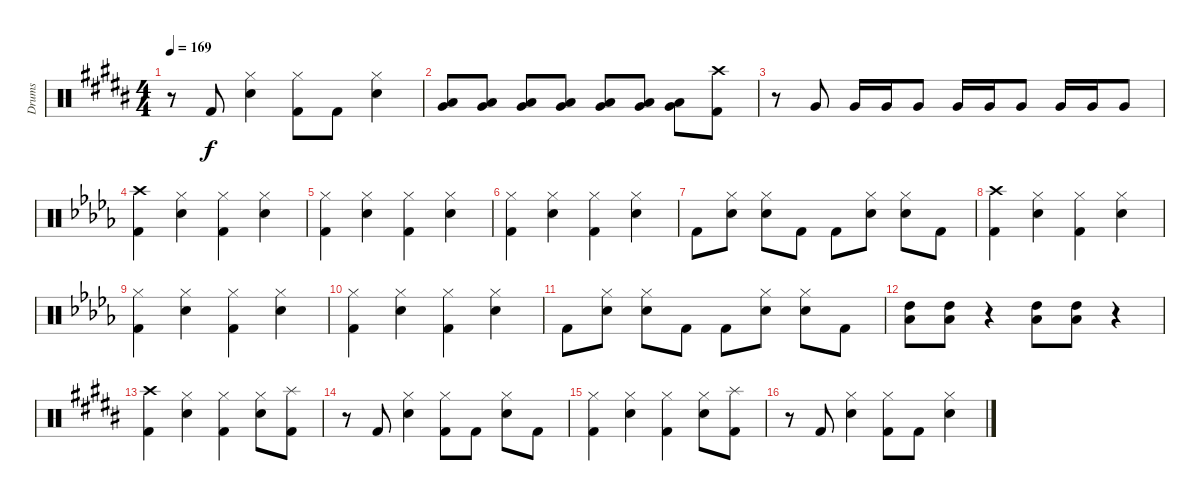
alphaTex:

\track ("Drums" "Drums") {instrument percussion}
\staff {score}
\articulation defaults
\ts (4 4)
\tempo 169
\clef neutral
\ks b
r.8{dy f} "Kick (hit) 2".8 ("Hi-Hat (closed)" "Snare (hit) 2").4 ("Hi-Hat (closed)" "Kick (hit) 2").8 "Kick (hit) 2".8 ("Hi-Hat (closed)" "Snare (hit) 2").4 |
("Low Tom (hit)" "Very Low Tom (hit)").8 ("Low Tom (hit)" "Very Low Tom (hit)").8 ("Low Tom (hit)" "Very Low Tom (hit)").8 ("Low Tom (hit)" "Very Low Tom (hit)").8 ("Low Tom (hit)" "Very Low Tom (hit)").8 ("Low Tom (hit)" "Very Low Tom (hit)").8 ("Low Tom (hit)" "Very Low Tom (hit)").8 ("Crash high (hit)" "Kick (hit) 2").8 |
r.8 "Very Low Tom (hit)".8 "Very Low Tom (hit)".16 "Very Low Tom (hit)".16 "Very Low Tom (hit)".8 "Very Low Tom (hit)".16 "Very Low Tom (hit)".16 "Very Low Tom (hit)".8 "Very Low Tom (hit)".16 "Very Low Tom (hit)".16 "Very Low Tom (hit)".8 |
\ks db
("Crash high (hit)" "Kick (hit) 2").4 ("Hi-Hat (closed)" "Snare (hit) 2").4 ("Hi-Hat (closed)" "Kick (hit) 2").4 ("Hi-Hat (closed)" "Snare (hit) 2").4 |
("Hi-Hat (closed)" "Kick (hit) 2").4 ("Hi-Hat (closed)" "Snare (hit) 2").4 ("Hi-Hat (closed)" "Kick (hit) 2").4 ("Hi-Hat (closed)" "Snare (hit) 2").4 |
("Hi-Hat (closed)" "Kick (hit) 2").4 ("Hi-Hat (closed)" "Snare (hit) 2").4 ("Hi-Hat (closed)" "Kick (hit) 2").4 ("Hi-Hat (closed)" "Snare (hit) 2").4 |
"Kick (hit) 2".8 ("Hi-Hat (closed)" "Snare (hit) 2").8 ("Hi-Hat (closed)" "Snare (hit) 2").8 "Kick (hit) 2".8 "Kick (hit) 2".8 ("Hi-Hat (closed)" "Snare (hit) 2").8 ("Hi-Hat (closed)" "Snare (hit) 2").8 "Kick (hit) 2".8 |
("Crash high (hit)" "Kick (hit) 2").4 ("Hi-Hat (closed)" "Snare (hit) 2").4 ("Hi-Hat (closed)" "Kick (hit) 2").4 ("Hi-Hat (closed)" "Snare (hit) 2").4 |
("Hi-Hat (closed)" "Kick (hit) 2").4 ("Hi-Hat (closed)" "Snare (hit) 2").4 ("Hi-Hat (closed)" "Kick (hit) 2").4 ("Hi-Hat (closed)" "Snare (hit) 2").4 |
("Hi-Hat (closed)" "Kick (hit) 2").4 ("Hi-Hat (closed)" "Snare (hit) 2").4 ("Hi-Hat (closed)" "Kick (hit) 2").4 ("Hi-Hat (closed)" "Snare (hit) 2").4 |
"Kick (hit) 2".8 ("Hi-Hat (closed)" "Snare (hit) 2").8 ("Hi-Hat (closed)" "Snare (hit) 2").8 "Kick (hit) 2".8 "Kick (hit) 2".8 ("Hi-Hat (closed)" "Snare (hit) 2").8 ("Hi-Hat (closed)" "Snare (hit) 2").8 "Kick (hit) 2".8 |
("Low Tom (hit)" "High Tom (hit)").8 ("Low Tom (hit)" "High Tom (hit)").8 r.4 ("Low Tom (hit)" "High Tom (hit)").8 ("Low Tom (hit)" "High Tom (hit)").8 r.4 |
\ks b
("Crash high (hit)" "Kick (hit) 2").4 ("Hi-Hat (closed)" "Snare (hit) 2").4 ("Hi-Hat (closed)" "Kick (hit) 2").4 ("Hi-Hat (closed)" "Snare (hit) 2").8 ("Splash (hit)" "Kick (hit) 2").8 |
r.8 "Kick (hit) 2".8 ("Hi-Hat (closed)" "Snare (hit) 2").4 ("Hi-Hat (closed)" "Kick (hit) 2").8 "Kick (hit) 2".8 ("Hi-Hat (closed)" "Snare (hit) 2").8 "Kick (hit) 2".8 |
("Hi-Hat (closed)" "Kick (hit) 2").4 ("Hi-Hat (closed)" "Snare (hit) 2").4 ("Hi-Hat (closed)" "Kick (hit) 2").4 ("Hi-Hat (closed)" "Snare (hit) 2").8 ("Splash (hit)" "Kick (hit) 2").8 |
r.8 "Kick (hit) 2".8 ("Hi-Hat (closed)" "Snare (hit) 2").4 ("Hi-Hat (closed)" "Kick (hit) 2").8 "Kick (hit) 2".8 ("Hi-Hat (closed)" "Snare (hit) 2").4
